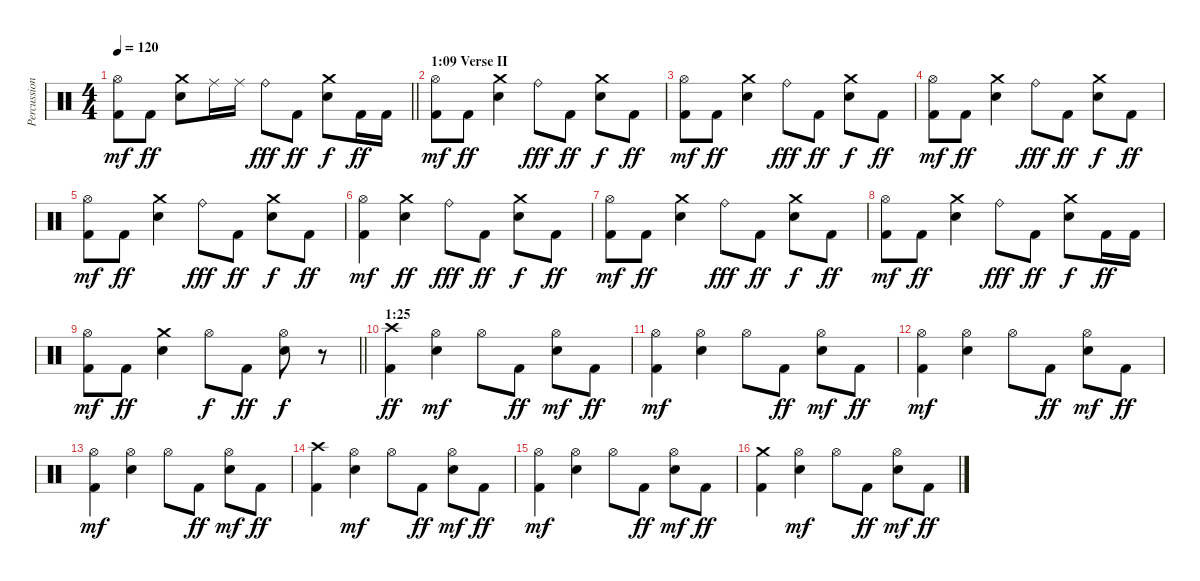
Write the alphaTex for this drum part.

\track ("Percussion" "Percussion") {instrument percussion}
\staff {score}
\articulation defaults
\ts (4 4)
\tempo 120
\clef neutral
\barLineRight lightlight
\ks c
("Kick (hit) 2" "Hi-Hat (open)").8{dy mf} "Kick (hit) 2".8{dy ff} ("Electric Snare (hit)" "Crash medium (hit)").8 "Ride (middle)".16 "Ride (middle)".16 "Ride (bell)".8{dy fff} "Kick (hit) 2".8{dy ff} ("Electric Snare (hit)" "Crash medium (hit)").8{dy f} "Kick (hit) 2".16{dy ff} "Kick (hit) 2".16 |
\section ("" "1:09 Verse II")
("Kick (hit) 2" "Hi-Hat (open)").8{dy mf} "Kick (hit) 2".8{dy ff} ("Electric Snare (hit)" "Crash medium (hit)").4 "Ride (bell)".8{dy fff} "Kick (hit) 2".8{dy ff} ("Electric Snare (hit)" "Crash medium (hit)").8{dy f} "Kick (hit) 2".8{dy ff} |
("Kick (hit) 2" "Hi-Hat (open)").8{dy mf} "Kick (hit) 2".8{dy ff} ("Electric Snare (hit)" "Crash medium (hit)").4 "Ride (bell)".8{dy fff} "Kick (hit) 2".8{dy ff} ("Electric Snare (hit)" "Crash medium (hit)").8{dy f} "Kick (hit) 2".8{dy ff} |
("Kick (hit) 2" "Hi-Hat (open)").8{dy mf} "Kick (hit) 2".8{dy ff} ("Electric Snare (hit)" "Crash medium (hit)").4 "Ride (bell)".8{dy fff} "Kick (hit) 2".8{dy ff} ("Electric Snare (hit)" "Crash medium (hit)").8{dy f} "Kick (hit) 2".8{dy ff} |
("Kick (hit) 2" "Hi-Hat (open)").8{dy mf} "Kick (hit) 2".8{dy ff} ("Electric Snare (hit)" "Crash medium (hit)").4 "Ride (bell)".8{dy fff} "Kick (hit) 2".8{dy ff} ("Electric Snare (hit)" "Crash medium (hit)").8{dy f} "Kick (hit) 2".8{dy ff} |
("Kick (hit) 2" "Hi-Hat (open)").4{dy mf} ("Electric Snare (hit)" "Crash medium (hit)").4{dy ff} "Ride (bell)".8{dy fff} "Kick (hit) 2".8{dy ff} ("Electric Snare (hit)" "Crash medium (hit)").8{dy f} "Kick (hit) 2".8{dy ff} |
("Kick (hit) 2" "Hi-Hat (open)").8{dy mf} "Kick (hit) 2".8{dy ff} ("Electric Snare (hit)" "Crash medium (hit)").4 "Ride (bell)".8{dy fff} "Kick (hit) 2".8{dy ff} ("Electric Snare (hit)" "Crash medium (hit)").8{dy f} "Kick (hit) 2".8{dy ff} |
("Kick (hit) 2" "Hi-Hat (open)").8{dy mf} "Kick (hit) 2".8{dy ff} ("Electric Snare (hit)" "Crash medium (hit)").4 "Ride (bell)".8{dy fff} "Kick (hit) 2".8{dy ff} ("Electric Snare (hit)" "Crash medium (hit)").8{dy f} "Kick (hit) 2".16{dy ff} "Kick (hit) 2".16 |
\barLineRight lightlight
("Kick (hit) 2" "Hi-Hat (open)").8{dy mf} "Kick (hit) 2".8{dy ff} ("Electric Snare (hit)" "Crash medium (hit)").4 "Hi-Hat (open)".8{dy f} "Kick (hit) 2".8{dy ff} ("Electric Snare (hit)" "Hi-Hat (open)").8{dy f} r.8 |
\section ("" "1:25")
("Kick (hit) 2" "Crash high (hit)").4{dy ff} ("Electric Snare (hit)" "Hi-Hat (open)").4{dy mf} "Hi-Hat (open)".8 "Kick (hit) 2".8{dy ff} ("Electric Snare (hit)" "Hi-Hat (open)").8{dy mf} "Kick (hit) 2".8{dy ff} |
("Kick (hit) 2" "Hi-Hat (open)").4{dy mf} ("Electric Snare (hit)" "Hi-Hat (open)").4 "Hi-Hat (open)".8 "Kick (hit) 2".8{dy ff} ("Electric Snare (hit)" "Hi-Hat (open)").8{dy mf} "Kick (hit) 2".8{dy ff} |
("Kick (hit) 2" "Hi-Hat (open)").4{dy mf} ("Electric Snare (hit)" "Hi-Hat (open)").4 "Hi-Hat (open)".8 "Kick (hit) 2".8{dy ff} ("Electric Snare (hit)" "Hi-Hat (open)").8{dy mf} "Kick (hit) 2".8{dy ff} |
("Kick (hit) 2" "Hi-Hat (open)").4{dy mf} ("Electric Snare (hit)" "Hi-Hat (open)").4 "Hi-Hat (open)".8 "Kick (hit) 2".8{dy ff} ("Electric Snare (hit)" "Hi-Hat (open)").8{dy mf} "Kick (hit) 2".8{dy ff} |
("Kick (hit) 2" "Crash high (hit)").4 ("Electric Snare (hit)" "Hi-Hat (open)").4{dy mf} "Hi-Hat (open)".8 "Kick (hit) 2".8{dy ff} ("Electric Snare (hit)" "Hi-Hat (open)").8{dy mf} "Kick (hit) 2".8{dy ff} |
("Kick (hit) 2" "Hi-Hat (open)").4{dy mf} ("Electric Snare (hit)" "Hi-Hat (open)").4 "Hi-Hat (open)".8 "Kick (hit) 2".8{dy ff} ("Electric Snare (hit)" "Hi-Hat (open)").8{dy mf} "Kick (hit) 2".8{dy ff} |
("Kick (hit) 2" "Crash medium (hit)").4 ("Electric Snare (hit)" "Hi-Hat (open)").4{dy mf} "Hi-Hat (open)".8 "Kick (hit) 2".8{dy ff} ("Electric Snare (hit)" "Hi-Hat (open)").8{dy mf} "Kick (hit) 2".8{dy ff}
